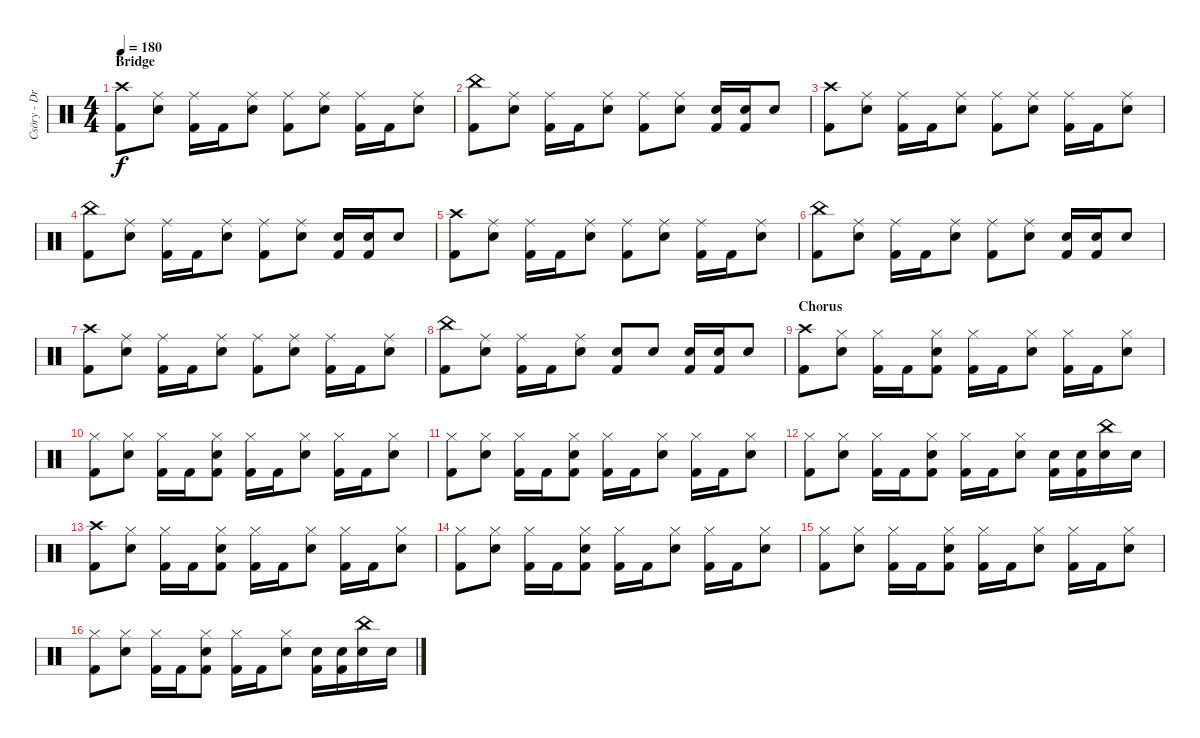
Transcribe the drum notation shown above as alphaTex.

\track ("Csöry - DrumZ" "Csöry - Dr") {instrument percussion}
\staff {score}
\articulation defaults
\ts (4 4)
\section ("" "Bridge")
\tempo 180
\clef neutral
\ks c
("Crash high (hit)" "Kick (hit) 2").8{dy f} ("Ride (middle)" "Snare (hit) 2").8 ("Ride (middle)" "Kick (hit) 2").16 "Kick (hit) 2".16 ("Ride (middle)" "Snare (hit) 2").8 ("Ride (middle)" "Kick (hit) 2").8 ("Ride (middle)" "Snare (hit) 2").8 ("Ride (middle)" "Kick (hit) 2").16 "Kick (hit) 2".16 ("Ride (middle)" "Snare (hit) 2").8 |
("China (hit)" "Kick (hit) 2").8 ("Ride (middle)" "Snare (hit) 2").8 ("Ride (middle)" "Kick (hit) 2").16 "Kick (hit) 2".16 ("Ride (middle)" "Snare (hit) 2").8 ("Ride (middle)" "Kick (hit) 2").8 ("Ride (middle)" "Snare (hit) 2").8 ("Snare (hit) 2" "Kick (hit) 2").16 ("Snare (hit) 2" "Kick (hit) 2").16 "Snare (hit) 2".8 |
("Crash high (hit)" "Kick (hit) 2").8 ("Ride (middle)" "Snare (hit) 2").8 ("Ride (middle)" "Kick (hit) 2").16 "Kick (hit) 2".16 ("Ride (middle)" "Snare (hit) 2").8 ("Ride (middle)" "Kick (hit) 2").8 ("Ride (middle)" "Snare (hit) 2").8 ("Ride (middle)" "Kick (hit) 2").16 "Kick (hit) 2".16 ("Ride (middle)" "Snare (hit) 2").8 |
("China (hit)" "Kick (hit) 2").8 ("Ride (middle)" "Snare (hit) 2").8 ("Ride (middle)" "Kick (hit) 2").16 "Kick (hit) 2".16 ("Ride (middle)" "Snare (hit) 2").8 ("Ride (middle)" "Kick (hit) 2").8 ("Ride (middle)" "Snare (hit) 2").8 ("Snare (hit) 2" "Kick (hit) 2").16 ("Snare (hit) 2" "Kick (hit) 2").16 "Snare (hit) 2".8 |
("Crash high (hit)" "Kick (hit) 2").8 ("Ride (middle)" "Snare (hit) 2").8 ("Ride (middle)" "Kick (hit) 2").16 "Kick (hit) 2".16 ("Ride (middle)" "Snare (hit) 2").8 ("Ride (middle)" "Kick (hit) 2").8 ("Ride (middle)" "Snare (hit) 2").8 ("Ride (middle)" "Kick (hit) 2").16 "Kick (hit) 2".16 ("Ride (middle)" "Snare (hit) 2").8 |
("China (hit)" "Kick (hit) 2").8 ("Ride (middle)" "Snare (hit) 2").8 ("Ride (middle)" "Kick (hit) 2").16 "Kick (hit) 2".16 ("Ride (middle)" "Snare (hit) 2").8 ("Ride (middle)" "Kick (hit) 2").8 ("Ride (middle)" "Snare (hit) 2").8 ("Snare (hit) 2" "Kick (hit) 2").16 ("Snare (hit) 2" "Kick (hit) 2").16 "Snare (hit) 2".8 |
("Crash high (hit)" "Kick (hit) 2").8 ("Ride (middle)" "Snare (hit) 2").8 ("Ride (middle)" "Kick (hit) 2").16 "Kick (hit) 2".16 ("Ride (middle)" "Snare (hit) 2").8 ("Ride (middle)" "Kick (hit) 2").8 ("Ride (middle)" "Snare (hit) 2").8 ("Ride (middle)" "Kick (hit) 2").16 "Kick (hit) 2".16 ("Ride (middle)" "Snare (hit) 2").8 |
("China (hit)" "Kick (hit) 2").8 ("Ride (middle)" "Snare (hit) 2").8 ("Ride (middle)" "Kick (hit) 2").16 "Kick (hit) 2".16 ("Ride (middle)" "Snare (hit) 2").8 ("Snare (hit) 2" "Kick (hit) 2").8 "Snare (hit) 2".8 ("Snare (hit) 2" "Kick (hit) 2").16 ("Snare (hit) 2" "Kick (hit) 2").16 "Snare (hit) 2".8 |
\section ("" "Chorus")
("Crash high (hit)" "Kick (hit) 2").8 ("Hi-Hat (closed)" "Snare (hit) 2").8 ("Hi-Hat (closed)" "Kick (hit) 2").16 "Kick (hit) 2".16 ("Hi-Hat (closed)" "Snare (hit) 2" "Kick (hit) 2").8 ("Hi-Hat (closed)" "Kick (hit) 2").16 "Kick (hit) 2".16 ("Hi-Hat (closed)" "Snare (hit) 2").8 ("Hi-Hat (closed)" "Kick (hit) 2").16 "Kick (hit) 2".16 ("Hi-Hat (closed)" "Snare (hit) 2").8 |
("Hi-Hat (closed)" "Kick (hit) 2").8 ("Hi-Hat (closed)" "Snare (hit) 2").8 ("Hi-Hat (closed)" "Kick (hit) 2").16 "Kick (hit) 2".16 ("Hi-Hat (closed)" "Snare (hit) 2" "Kick (hit) 2").8 ("Hi-Hat (closed)" "Kick (hit) 2").16 "Kick (hit) 2".16 ("Hi-Hat (closed)" "Snare (hit) 2").8 ("Hi-Hat (closed)" "Kick (hit) 2").16 "Kick (hit) 2".16 ("Hi-Hat (closed)" "Snare (hit) 2").8 |
("Hi-Hat (closed)" "Kick (hit) 2").8 ("Hi-Hat (closed)" "Snare (hit) 2").8 ("Hi-Hat (closed)" "Kick (hit) 2").16 "Kick (hit) 2".16 ("Hi-Hat (closed)" "Snare (hit) 2" "Kick (hit) 2").8 ("Hi-Hat (closed)" "Kick (hit) 2").16 "Kick (hit) 2".16 ("Hi-Hat (closed)" "Snare (hit) 2").8 ("Hi-Hat (closed)" "Kick (hit) 2").16 "Kick (hit) 2".16 ("Hi-Hat (closed)" "Snare (hit) 2").8 |
("Hi-Hat (closed)" "Kick (hit) 2").8 ("Hi-Hat (closed)" "Snare (hit) 2").8 ("Hi-Hat (closed)" "Kick (hit) 2").16 "Kick (hit) 2".16 ("Hi-Hat (closed)" "Snare (hit) 2" "Kick (hit) 2").8 ("Hi-Hat (closed)" "Kick (hit) 2").16 "Kick (hit) 2".16 ("Hi-Hat (closed)" "Snare (hit) 2").8 ("Snare (hit) 2" "Kick (hit) 2").16 ("Snare (hit) 2" "Kick (hit) 2").16 ("China (hit)" "Snare (hit) 2").16 "Snare (hit) 2".16 |
("Crash high (hit)" "Kick (hit) 2").8 ("Hi-Hat (closed)" "Snare (hit) 2").8 ("Hi-Hat (closed)" "Kick (hit) 2").16 "Kick (hit) 2".16 ("Hi-Hat (closed)" "Snare (hit) 2" "Kick (hit) 2").8 ("Hi-Hat (closed)" "Kick (hit) 2").16 "Kick (hit) 2".16 ("Hi-Hat (closed)" "Snare (hit) 2").8 ("Hi-Hat (closed)" "Kick (hit) 2").16 "Kick (hit) 2".16 ("Hi-Hat (closed)" "Snare (hit) 2").8 |
("Hi-Hat (closed)" "Kick (hit) 2").8 ("Hi-Hat (closed)" "Snare (hit) 2").8 ("Hi-Hat (closed)" "Kick (hit) 2").16 "Kick (hit) 2".16 ("Hi-Hat (closed)" "Snare (hit) 2" "Kick (hit) 2").8 ("Hi-Hat (closed)" "Kick (hit) 2").16 "Kick (hit) 2".16 ("Hi-Hat (closed)" "Snare (hit) 2").8 ("Hi-Hat (closed)" "Kick (hit) 2").16 "Kick (hit) 2".16 ("Hi-Hat (closed)" "Snare (hit) 2").8 |
("Hi-Hat (closed)" "Kick (hit) 2").8 ("Hi-Hat (closed)" "Snare (hit) 2").8 ("Hi-Hat (closed)" "Kick (hit) 2").16 "Kick (hit) 2".16 ("Hi-Hat (closed)" "Snare (hit) 2" "Kick (hit) 2").8 ("Hi-Hat (closed)" "Kick (hit) 2").16 "Kick (hit) 2".16 ("Hi-Hat (closed)" "Snare (hit) 2").8 ("Hi-Hat (closed)" "Kick (hit) 2").16 "Kick (hit) 2".16 ("Hi-Hat (closed)" "Snare (hit) 2").8 |
("Hi-Hat (closed)" "Kick (hit) 2").8 ("Hi-Hat (closed)" "Snare (hit) 2").8 ("Hi-Hat (closed)" "Kick (hit) 2").16 "Kick (hit) 2".16 ("Hi-Hat (closed)" "Snare (hit) 2" "Kick (hit) 2").8 ("Hi-Hat (closed)" "Kick (hit) 2").16 "Kick (hit) 2".16 ("Hi-Hat (closed)" "Snare (hit) 2").8 ("Snare (hit) 2" "Kick (hit) 2").16 ("Snare (hit) 2" "Kick (hit) 2").16 ("China (hit)" "Snare (hit) 2").16 "Snare (hit) 2".16
